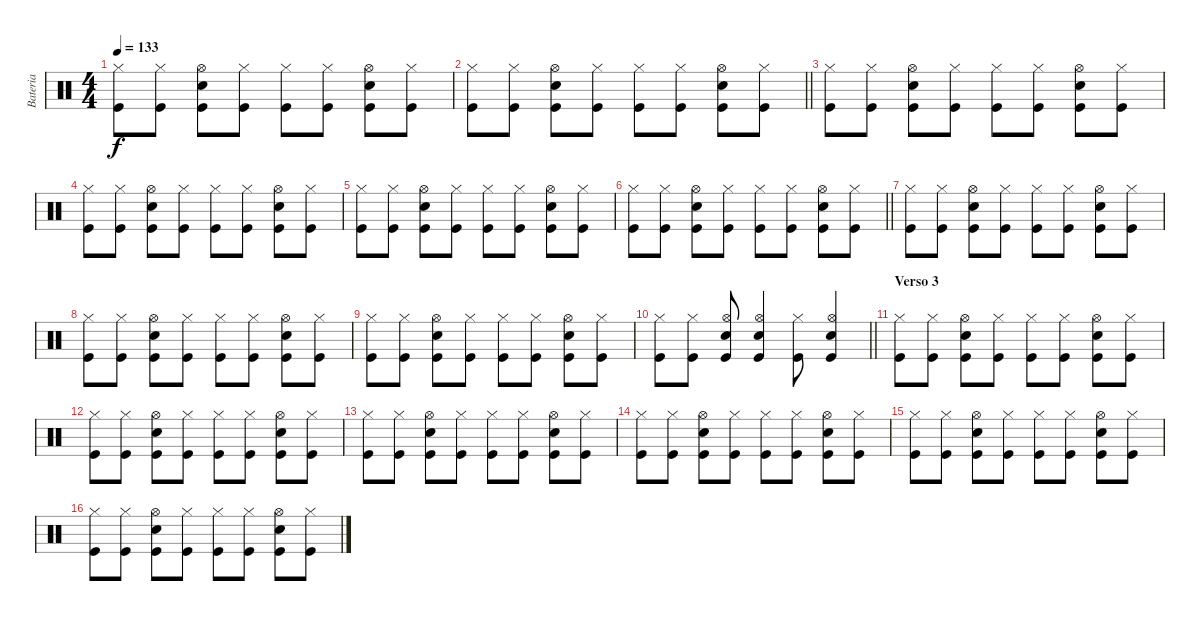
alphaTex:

\track ("Bateria" "Bateria") {instrument percussion}
\staff
\articulation defaults
\ts (4 4)
\tempo 133
\clef neutral
\ks c
("Hi-Hat (closed)" "Kick (hit)").8{dy f} ("Hi-Hat (closed)" "Kick (hit)").8 ("Hi-Hat (open)" "Kick (hit)" "Snare (hit) 2").8 ("Hi-Hat (closed)" "Kick (hit)").8 ("Hi-Hat (closed)" "Kick (hit)").8 ("Hi-Hat (closed)" "Kick (hit)").8 ("Hi-Hat (open)" "Kick (hit)" "Snare (hit) 2").8 ("Hi-Hat (closed)" "Kick (hit)").8 |
\barLineRight lightlight
("Hi-Hat (closed)" "Kick (hit)").8 ("Hi-Hat (closed)" "Kick (hit)").8 ("Hi-Hat (open)" "Kick (hit)" "Snare (hit) 2").8 ("Hi-Hat (closed)" "Kick (hit)").8 ("Hi-Hat (closed)" "Kick (hit)").8 ("Hi-Hat (closed)" "Kick (hit)").8 ("Hi-Hat (open)" "Kick (hit)" "Snare (hit) 2").8 ("Hi-Hat (closed)" "Kick (hit)").8 |
\section ("" "")
("Hi-Hat (closed)" "Kick (hit)").8 ("Hi-Hat (closed)" "Kick (hit)").8 ("Hi-Hat (open)" "Kick (hit)" "Snare (hit) 2").8 ("Hi-Hat (closed)" "Kick (hit)").8 ("Hi-Hat (closed)" "Kick (hit)").8 ("Hi-Hat (closed)" "Kick (hit)").8 ("Hi-Hat (open)" "Kick (hit)" "Snare (hit) 2").8 ("Hi-Hat (closed)" "Kick (hit)").8 |
("Hi-Hat (closed)" "Kick (hit)").8 ("Hi-Hat (closed)" "Kick (hit)").8 ("Hi-Hat (open)" "Kick (hit)" "Snare (hit) 2").8 ("Hi-Hat (closed)" "Kick (hit)").8 ("Hi-Hat (closed)" "Kick (hit)").8 ("Hi-Hat (closed)" "Kick (hit)").8 ("Hi-Hat (open)" "Kick (hit)" "Snare (hit) 2").8 ("Hi-Hat (closed)" "Kick (hit)").8 |
("Hi-Hat (closed)" "Kick (hit)").8 ("Hi-Hat (closed)" "Kick (hit)").8 ("Hi-Hat (open)" "Kick (hit)" "Snare (hit) 2").8 ("Hi-Hat (closed)" "Kick (hit)").8 ("Hi-Hat (closed)" "Kick (hit)").8 ("Hi-Hat (closed)" "Kick (hit)").8 ("Hi-Hat (open)" "Kick (hit)" "Snare (hit) 2").8 ("Hi-Hat (closed)" "Kick (hit)").8 |
\barLineRight lightlight
("Hi-Hat (closed)" "Kick (hit)").8 ("Hi-Hat (closed)" "Kick (hit)").8 ("Hi-Hat (open)" "Kick (hit)" "Snare (hit) 2").8 ("Hi-Hat (closed)" "Kick (hit)").8 ("Hi-Hat (closed)" "Kick (hit)").8 ("Hi-Hat (closed)" "Kick (hit)").8 ("Hi-Hat (open)" "Kick (hit)" "Snare (hit) 2").8 ("Hi-Hat (closed)" "Kick (hit)").8 |
("Hi-Hat (closed)" "Kick (hit)").8 ("Hi-Hat (closed)" "Kick (hit)").8 ("Hi-Hat (open)" "Kick (hit)" "Snare (hit) 2").8 ("Hi-Hat (closed)" "Kick (hit)").8 ("Hi-Hat (closed)" "Kick (hit)").8 ("Hi-Hat (closed)" "Kick (hit)").8 ("Hi-Hat (open)" "Kick (hit)" "Snare (hit) 2").8 ("Hi-Hat (closed)" "Kick (hit)").8 |
("Hi-Hat (closed)" "Kick (hit)").8 ("Hi-Hat (closed)" "Kick (hit)").8 ("Hi-Hat (open)" "Kick (hit)" "Snare (hit) 2").8 ("Hi-Hat (closed)" "Kick (hit)").8 ("Hi-Hat (closed)" "Kick (hit)").8 ("Hi-Hat (closed)" "Kick (hit)").8 ("Hi-Hat (open)" "Kick (hit)" "Snare (hit) 2").8 ("Hi-Hat (closed)" "Kick (hit)").8 |
("Hi-Hat (closed)" "Kick (hit)").8 ("Hi-Hat (closed)" "Kick (hit)").8 ("Hi-Hat (open)" "Kick (hit)" "Snare (hit) 2").8 ("Hi-Hat (closed)" "Kick (hit)").8 ("Hi-Hat (closed)" "Kick (hit)").8 ("Hi-Hat (closed)" "Kick (hit)").8 ("Hi-Hat (open)" "Kick (hit)" "Snare (hit) 2").8 ("Hi-Hat (closed)" "Kick (hit)").8 |
\barLineRight lightlight
("Hi-Hat (closed)" "Kick (hit)").8 ("Hi-Hat (closed)" "Kick (hit)").8 ("Hi-Hat (open)" "Kick (hit)" "Snare (hit) 2").8 ("Hi-Hat (open)" "Kick (hit)" "Snare (hit) 2").4 ("Hi-Hat (closed)" "Kick (hit)").8 ("Hi-Hat (open)" "Kick (hit)" "Snare (hit) 2").4 |
\section ("" "Verso 3")
("Hi-Hat (closed)" "Kick (hit)").8 ("Hi-Hat (closed)" "Kick (hit)").8 ("Hi-Hat (open)" "Kick (hit)" "Snare (hit) 2").8 ("Hi-Hat (closed)" "Kick (hit)").8 ("Hi-Hat (closed)" "Kick (hit)").8 ("Hi-Hat (closed)" "Kick (hit)").8 ("Hi-Hat (open)" "Kick (hit)" "Snare (hit) 2").8 ("Hi-Hat (closed)" "Kick (hit)").8 |
("Hi-Hat (closed)" "Kick (hit)").8 ("Hi-Hat (closed)" "Kick (hit)").8 ("Hi-Hat (open)" "Kick (hit)" "Snare (hit) 2").8 ("Hi-Hat (closed)" "Kick (hit)").8 ("Hi-Hat (closed)" "Kick (hit)").8 ("Hi-Hat (closed)" "Kick (hit)").8 ("Hi-Hat (open)" "Kick (hit)" "Snare (hit) 2").8 ("Hi-Hat (closed)" "Kick (hit)").8 |
("Hi-Hat (closed)" "Kick (hit)").8 ("Hi-Hat (closed)" "Kick (hit)").8 ("Hi-Hat (open)" "Kick (hit)" "Snare (hit) 2").8 ("Hi-Hat (closed)" "Kick (hit)").8 ("Hi-Hat (closed)" "Kick (hit)").8 ("Hi-Hat (closed)" "Kick (hit)").8 ("Hi-Hat (open)" "Kick (hit)" "Snare (hit) 2").8 ("Hi-Hat (closed)" "Kick (hit)").8 |
("Hi-Hat (closed)" "Kick (hit)").8 ("Hi-Hat (closed)" "Kick (hit)").8 ("Hi-Hat (open)" "Kick (hit)" "Snare (hit) 2").8 ("Hi-Hat (closed)" "Kick (hit)").8 ("Hi-Hat (closed)" "Kick (hit)").8 ("Hi-Hat (closed)" "Kick (hit)").8 ("Hi-Hat (open)" "Kick (hit)" "Snare (hit) 2").8 ("Hi-Hat (closed)" "Kick (hit)").8 |
("Hi-Hat (closed)" "Kick (hit)").8 ("Hi-Hat (closed)" "Kick (hit)").8 ("Hi-Hat (open)" "Kick (hit)" "Snare (hit) 2").8 ("Hi-Hat (closed)" "Kick (hit)").8 ("Hi-Hat (closed)" "Kick (hit)").8 ("Hi-Hat (closed)" "Kick (hit)").8 ("Hi-Hat (open)" "Kick (hit)" "Snare (hit) 2").8 ("Hi-Hat (closed)" "Kick (hit)").8 |
("Hi-Hat (closed)" "Kick (hit)").8 ("Hi-Hat (closed)" "Kick (hit)").8 ("Hi-Hat (open)" "Kick (hit)" "Snare (hit) 2").8 ("Hi-Hat (closed)" "Kick (hit)").8 ("Hi-Hat (closed)" "Kick (hit)").8 ("Hi-Hat (closed)" "Kick (hit)").8 ("Hi-Hat (open)" "Kick (hit)" "Snare (hit) 2").8 ("Hi-Hat (closed)" "Kick (hit)").8
